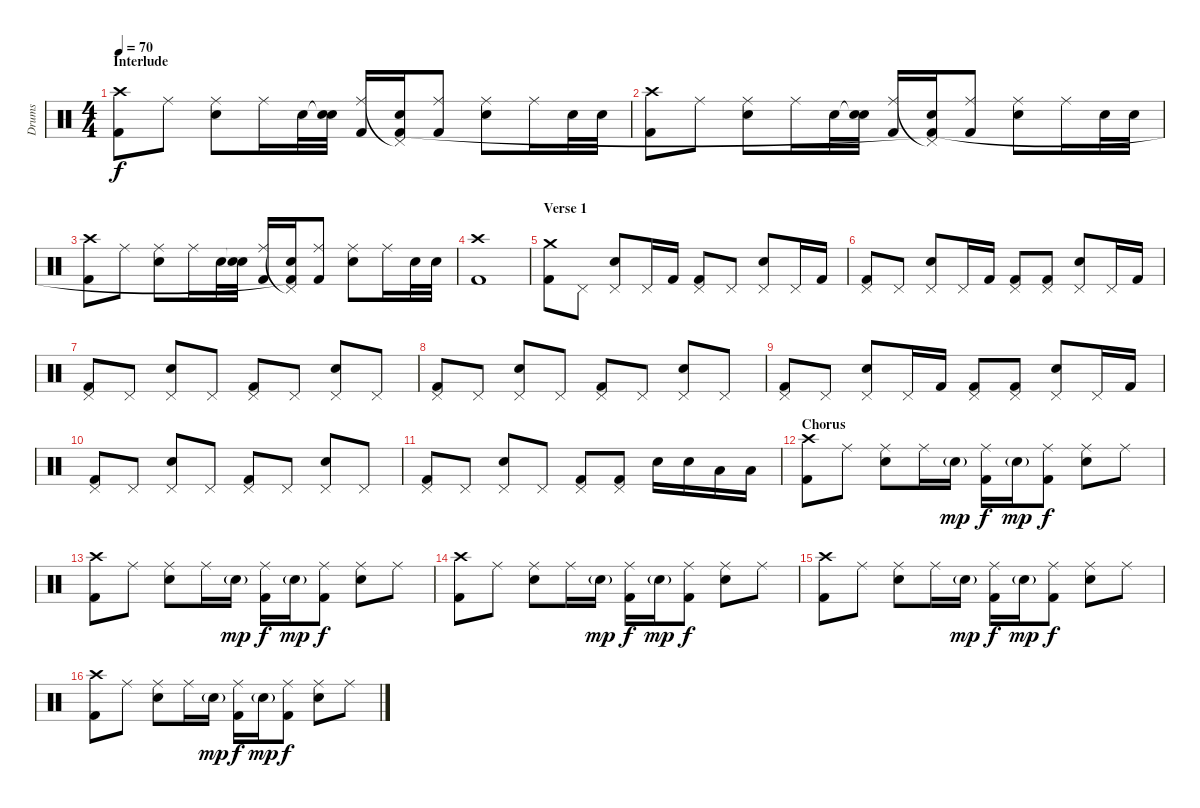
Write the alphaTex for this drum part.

\track ("Drums" "Drums") {instrument percussion}
\staff {score}
\articulation defaults
\ts (4 4)
\section ("" "Interlude")
\tempo 70
\clef neutral
\ks c
("Crash high (hit)" "Kick (hit) 2").8{dy f} "Ride (middle)".8 ("Ride (middle)" "Electric Snare (hit)").8 "Ride (middle)".16 "Electric Snare (hit)".32 ("Snare (hit)"{t} "Electric Snare (hit)").32 ("Ride (middle)" "Kick (hit) 2").16 ("Pedal Hi-Hat (hit)"{t} "Electric Snare (hit)" "Kick (hit) 2").16 ("Ride (middle)" "Kick (hit) 2").8 ("Ride (middle)" "Electric Snare (hit)").8 "Ride (middle)".16 "Electric Snare (hit)".32 "Electric Snare (hit)".32 |
("Crash high (hit)" "Kick (hit) 2").8 "Ride (middle)".8 ("Ride (middle)" "Electric Snare (hit)").8 "Ride (middle)".16 "Electric Snare (hit)".32 ("Snare (hit)"{t} "Electric Snare (hit)").32 ("Ride (middle)" "Kick (hit) 2").16 ("Pedal Hi-Hat (hit)"{t} "Electric Snare (hit)" "Kick (hit) 2"{t}).16 ("Ride (middle)" "Kick (hit) 2").8 ("Ride (middle)" "Electric Snare (hit)").8 "Ride (middle)".16 "Electric Snare (hit)".32 "Electric Snare (hit)".32 |
("Crash high (hit)" "Kick (hit) 2").8 "Ride (middle)".8 ("Ride (middle)" "Electric Snare (hit)").8 "Ride (middle)".16 "Electric Snare (hit)".32 ("Snare (hit)"{t} "Electric Snare (hit)").32 ("Ride (middle)" "Kick (hit) 2").16 ("Pedal Hi-Hat (hit)"{t} "Electric Snare (hit)" "Kick (hit) 2"{t}).16 ("Ride (middle)" "Kick (hit) 2").8 ("Ride (middle)" "Electric Snare (hit)").8 "Ride (middle)".16 "Electric Snare (hit)".32 "Electric Snare (hit)".32 |
("Crash high (hit)" "Kick (hit) 2").1 |
\section ("" "Verse 1")
("Crash medium (hit)" "Kick (hit) 2").8 "Pedal Hi-Hat (hit)".8 ("Pedal Hi-Hat (hit)" "Electric Snare (hit)").8 "Pedal Hi-Hat (hit)".16 "Kick (hit) 2".16 ("Pedal Hi-Hat (hit)" "Kick (hit) 2").8 "Pedal Hi-Hat (hit)".8 ("Pedal Hi-Hat (hit)" "Electric Snare (hit)").8 "Pedal Hi-Hat (hit)".16 "Kick (hit) 2".16 |
("Pedal Hi-Hat (hit)" "Kick (hit) 2").8 "Pedal Hi-Hat (hit)".8 ("Pedal Hi-Hat (hit)" "Electric Snare (hit)").8 "Pedal Hi-Hat (hit)".16 "Kick (hit) 2".16 ("Pedal Hi-Hat (hit)" "Kick (hit) 2").8 ("Pedal Hi-Hat (hit)" "Kick (hit) 2").8 ("Pedal Hi-Hat (hit)" "Electric Snare (hit)").8 "Pedal Hi-Hat (hit)".16 "Kick (hit) 2".16 |
("Pedal Hi-Hat (hit)" "Kick (hit) 2").8 "Pedal Hi-Hat (hit)".8 ("Pedal Hi-Hat (hit)" "Electric Snare (hit)").8 "Pedal Hi-Hat (hit)".8 ("Pedal Hi-Hat (hit)" "Kick (hit) 2").8 "Pedal Hi-Hat (hit)".8 ("Pedal Hi-Hat (hit)" "Electric Snare (hit)").8 "Pedal Hi-Hat (hit)".8 |
("Pedal Hi-Hat (hit)" "Kick (hit) 2").8 "Pedal Hi-Hat (hit)".8 ("Pedal Hi-Hat (hit)" "Electric Snare (hit)").8 "Pedal Hi-Hat (hit)".8 ("Pedal Hi-Hat (hit)" "Kick (hit) 2").8 "Pedal Hi-Hat (hit)".8 ("Pedal Hi-Hat (hit)" "Electric Snare (hit)").8 "Pedal Hi-Hat (hit)".8 |
("Pedal Hi-Hat (hit)" "Kick (hit) 2").8 "Pedal Hi-Hat (hit)".8 ("Pedal Hi-Hat (hit)" "Electric Snare (hit)").8 "Pedal Hi-Hat (hit)".16 "Kick (hit) 2".16 ("Pedal Hi-Hat (hit)" "Kick (hit) 2").8 ("Pedal Hi-Hat (hit)" "Kick (hit) 2").8 ("Pedal Hi-Hat (hit)" "Electric Snare (hit)").8 "Pedal Hi-Hat (hit)".16 "Kick (hit) 2".16 |
("Pedal Hi-Hat (hit)" "Kick (hit) 2").8 "Pedal Hi-Hat (hit)".8 ("Pedal Hi-Hat (hit)" "Electric Snare (hit)").8 "Pedal Hi-Hat (hit)".8 ("Pedal Hi-Hat (hit)" "Kick (hit) 2").8 "Pedal Hi-Hat (hit)".8 ("Pedal Hi-Hat (hit)" "Electric Snare (hit)").8 "Pedal Hi-Hat (hit)".8 |
("Pedal Hi-Hat (hit)" "Kick (hit) 2").8 "Pedal Hi-Hat (hit)".8 ("Pedal Hi-Hat (hit)" "Electric Snare (hit)").8 "Pedal Hi-Hat (hit)".8 ("Pedal Hi-Hat (hit)" "Kick (hit) 2").8 ("Pedal Hi-Hat (hit)" "Kick (hit) 2").8 "Electric Snare (hit)".16 "Electric Snare (hit)".16 "Low Tom (hit)".16 "Low Tom (hit)".16 |
\section ("" "Chorus")
("Crash high (hit)" "Kick (hit) 2").8 "Ride (middle)".8 ("Ride (middle)" "Electric Snare (hit)").8 "Ride (middle)".16 "Electric Snare (hit)"{g}.16{dy mp} ("Ride (middle)" "Kick (hit) 2").16{dy f} "Electric Snare (hit)"{g}.16{dy mp} ("Ride (middle)" "Kick (hit) 2").8{dy f} ("Ride (middle)" "Electric Snare (hit)").8 "Ride (middle)".8 |
("Crash high (hit)" "Kick (hit) 2").8 "Ride (middle)".8 ("Ride (middle)" "Electric Snare (hit)").8 "Ride (middle)".16 "Electric Snare (hit)"{g}.16{dy mp} ("Ride (middle)" "Kick (hit) 2").16{dy f} "Electric Snare (hit)"{g}.16{dy mp} ("Ride (middle)" "Kick (hit) 2").8{dy f} ("Ride (middle)" "Electric Snare (hit)").8 "Ride (middle)".8 |
("Crash high (hit)" "Kick (hit) 2").8 "Ride (middle)".8 ("Ride (middle)" "Electric Snare (hit)").8 "Ride (middle)".16 "Electric Snare (hit)"{g}.16{dy mp} ("Ride (middle)" "Kick (hit) 2").16{dy f} "Electric Snare (hit)"{g}.16{dy mp} ("Ride (middle)" "Kick (hit) 2").8{dy f} ("Ride (middle)" "Electric Snare (hit)").8 "Ride (middle)".8 |
("Crash high (hit)" "Kick (hit) 2").8 "Ride (middle)".8 ("Ride (middle)" "Electric Snare (hit)").8 "Ride (middle)".16 "Electric Snare (hit)"{g}.16{dy mp} ("Ride (middle)" "Kick (hit) 2").16{dy f} "Electric Snare (hit)"{g}.16{dy mp} ("Ride (middle)" "Kick (hit) 2").8{dy f} ("Ride (middle)" "Electric Snare (hit)").8 "Ride (middle)".8 |
("Crash high (hit)" "Kick (hit) 2").8 "Ride (middle)".8 ("Ride (middle)" "Electric Snare (hit)").8 "Ride (middle)".16 "Electric Snare (hit)"{g}.16{dy mp} ("Ride (middle)" "Kick (hit) 2").16{dy f} "Electric Snare (hit)"{g}.16{dy mp} ("Ride (middle)" "Kick (hit) 2").8{dy f} ("Ride (middle)" "Electric Snare (hit)").8 "Ride (middle)".8
